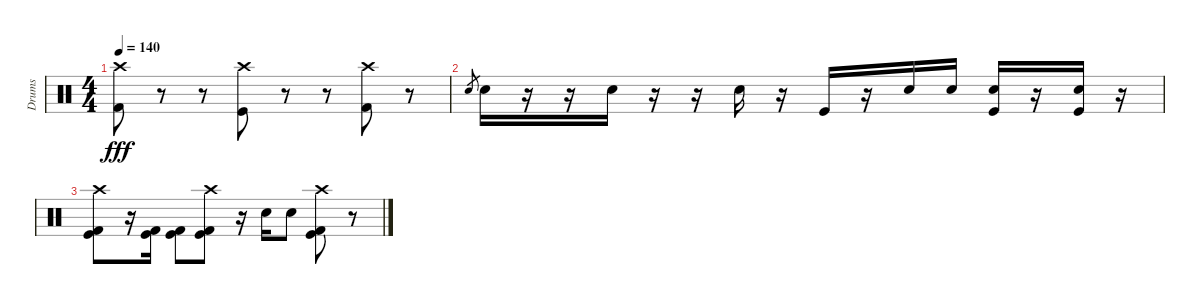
\track ("Drums" "Drums") {instrument percussion}
\staff {score}
\articulation defaults
\ts (4 4)
\tempo 140
\clef neutral
\ks c
("Crash high (hit)" "Kick (hit) 2").8{dy fff} r.8 r.8 ("Crash high (hit)" "Kick (hit)").8 r.8 r.8 ("Crash high (hit)" "Kick (hit) 2").8 r.8 |
"Snare (hit) 2".8{gr} "Snare (hit) 2".16 r.16 r.16 "Snare (hit) 2".16 r.16 r.16 "Snare (hit) 2".16 r.16 "Kick (hit)".16 r.16 "Snare (hit) 2".16 "Snare (hit) 2".16 ("Snare (hit) 2" "Kick (hit)").16 r.16 ("Snare (hit) 2" "Kick (hit)").16 r.16 |
("Crash high (hit)" "Kick (hit)" "Kick (hit) 2").8 r.16 ("Kick (hit) 2" "Kick (hit)").16 ("Kick (hit) 2" "Kick (hit)").8 ("Crash high (hit)" "Kick (hit)" "Kick (hit) 2").8 r.16 "Electric Snare (hit)".16 "Electric Snare (hit)".8 ("Crash high (hit)" "Kick (hit) 2" "Kick (hit)").8 r.8
